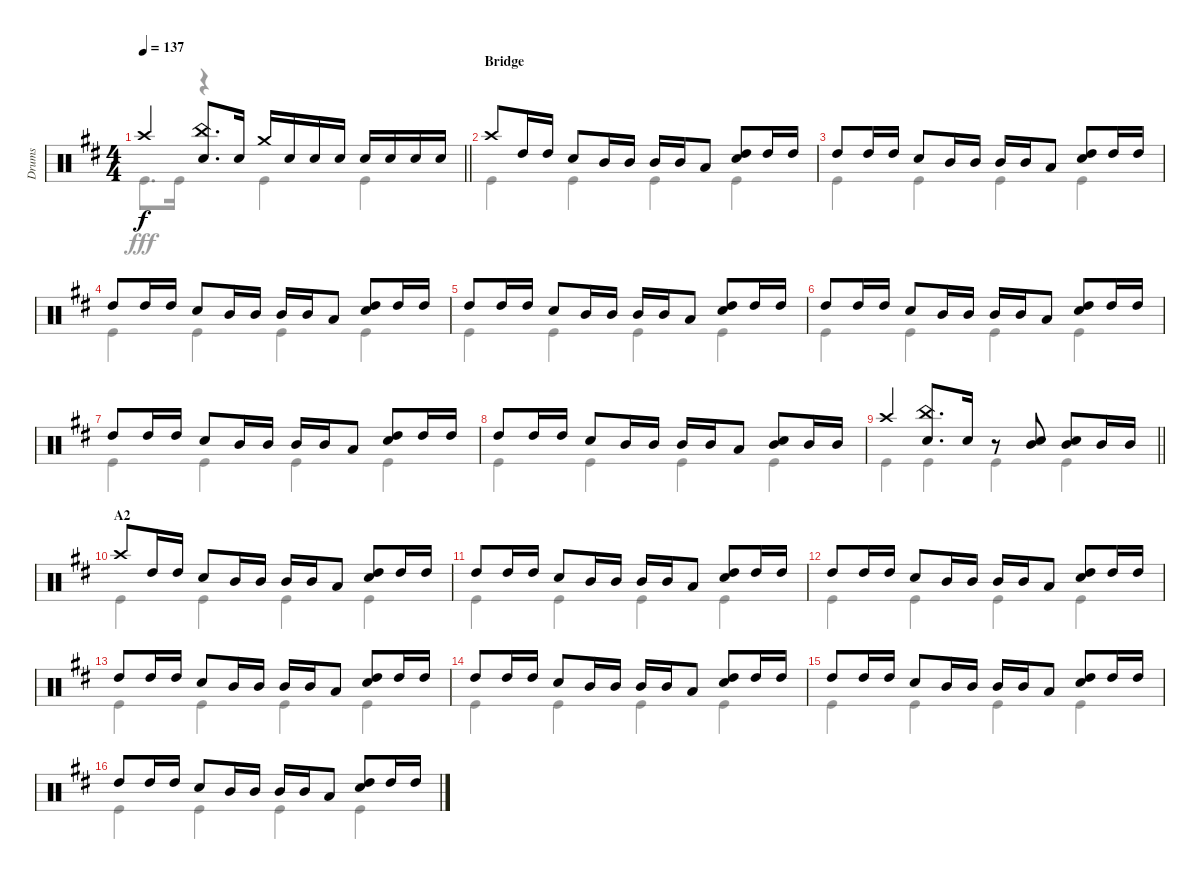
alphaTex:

\track ("Drums" "Drums") {instrument percussion}
\staff {score}
\articulation defaults
\voice
\ts (4 4)
\tempo 137
\clef neutral
\barLineRight lightlight
\ks d "Crash high (hit)".4{dy f}
("China (hit)" "Snare (hit) 2").8{d} "Snare (hit) 2".16 "Crash medium (hit)".16 "Snare (hit) 2".16 "Snare (hit) 2".16 "Snare (hit) 2".16 "Snare (hit) 2".16 "Snare (hit) 2".16 "Snare (hit) 2".16 "Snare (hit) 2".16 |
\section ("" "Bridge")
"Crash high (hit)".8 "High Tom (hit)".16 "High Tom (hit)".16 "Snare (hit) 2".8 "Mid Tom (hit)".16 "Mid Tom (hit)".16 "Mid Tom (hit)".16 "Mid Tom (hit)".16 "Low Tom (hit)".8 ("High Tom (hit)" "Snare (hit) 2").8 "High Tom (hit)".16 "High Tom (hit)".16 |
"High Tom (hit)".8 "High Tom (hit)".16 "High Tom (hit)".16 "Snare (hit) 2".8 "Mid Tom (hit)".16 "Mid Tom (hit)".16 "Mid Tom (hit)".16 "Mid Tom (hit)".16 "Low Tom (hit)".8 ("High Tom (hit)" "Snare (hit) 2").8 "High Tom (hit)".16 "High Tom (hit)".16 |
"High Tom (hit)".8 "High Tom (hit)".16 "High Tom (hit)".16 "Snare (hit) 2".8 "Mid Tom (hit)".16 "Mid Tom (hit)".16 "Mid Tom (hit)".16 "Mid Tom (hit)".16 "Low Tom (hit)".8 ("High Tom (hit)" "Snare (hit) 2").8 "High Tom (hit)".16 "High Tom (hit)".16 |
"High Tom (hit)".8 "High Tom (hit)".16 "High Tom (hit)".16 "Snare (hit) 2".8 "Mid Tom (hit)".16 "Mid Tom (hit)".16 "Mid Tom (hit)".16 "Mid Tom (hit)".16 "Low Tom (hit)".8 ("High Tom (hit)" "Snare (hit) 2").8 "High Tom (hit)".16 "High Tom (hit)".16 |
"High Tom (hit)".8 "High Tom (hit)".16 "High Tom (hit)".16 "Snare (hit) 2".8 "Mid Tom (hit)".16 "Mid Tom (hit)".16 "Mid Tom (hit)".16 "Mid Tom (hit)".16 "Low Tom (hit)".8 ("High Tom (hit)" "Snare (hit) 2").8 "High Tom (hit)".16 "High Tom (hit)".16 |
"High Tom (hit)".8 "High Tom (hit)".16 "High Tom (hit)".16 "Snare (hit) 2".8 "Mid Tom (hit)".16 "Mid Tom (hit)".16 "Mid Tom (hit)".16 "Mid Tom (hit)".16 "Low Tom (hit)".8 ("High Tom (hit)" "Snare (hit) 2").8 "High Tom (hit)".16 "High Tom (hit)".16 |
"High Tom (hit)".8 "High Tom (hit)".16 "High Tom (hit)".16 "Snare (hit) 2".8 "Mid Tom (hit)".16 "Mid Tom (hit)".16 "Mid Tom (hit)".16 "Mid Tom (hit)".16 "Low Tom (hit)".8 ("Mid Tom (hit)" "Snare (hit) 2").8 "Mid Tom (hit)".16 "Mid Tom (hit)".16 |
\barLineRight lightlight "Crash high (hit)".4
("China (hit)" "Snare (hit) 2").8{d} "Snare (hit) 2".16 r.8 ("Mid Tom (hit)" "Snare (hit) 2").8 ("Mid Tom (hit)" "Snare (hit) 2").8 "Mid Tom (hit)".16 "Mid Tom (hit)".16 |
\section ("" "A2")
"Crash high (hit)".8 "High Tom (hit)".16 "High Tom (hit)".16 "Snare (hit) 2".8 "Mid Tom (hit)".16 "Mid Tom (hit)".16 "Mid Tom (hit)".16 "Mid Tom (hit)".16 "Low Tom (hit)".8 ("Snare (hit) 2" "High Tom (hit)").8 "High Tom (hit)".16 "High Tom (hit)".16 |
"High Tom (hit)".8 "High Tom (hit)".16 "High Tom (hit)".16 "Snare (hit) 2".8 "Mid Tom (hit)".16 "Mid Tom (hit)".16 "Mid Tom (hit)".16 "Mid Tom (hit)".16 "Low Tom (hit)".8 ("Snare (hit) 2" "High Tom (hit)").8 "High Tom (hit)".16 "High Tom (hit)".16 |
"High Tom (hit)".8 "High Tom (hit)".16 "High Tom (hit)".16 "Snare (hit) 2".8 "Mid Tom (hit)".16 "Mid Tom (hit)".16 "Mid Tom (hit)".16 "Mid Tom (hit)".16 "Low Tom (hit)".8 ("Snare (hit) 2" "High Tom (hit)").8 "High Tom (hit)".16 "High Tom (hit)".16 |
"High Tom (hit)".8 "High Tom (hit)".16 "High Tom (hit)".16 "Snare (hit) 2".8 "Mid Tom (hit)".16 "Mid Tom (hit)".16 "Mid Tom (hit)".16 "Mid Tom (hit)".16 "Low Tom (hit)".8 ("Snare (hit) 2" "High Tom (hit)").8 "High Tom (hit)".16 "High Tom (hit)".16 |
"High Tom (hit)".8 "High Tom (hit)".16 "High Tom (hit)".16 "Snare (hit) 2".8 "Mid Tom (hit)".16 "Mid Tom (hit)".16 "Mid Tom (hit)".16 "Mid Tom (hit)".16 "Low Tom (hit)".8 ("Snare (hit) 2" "High Tom (hit)").8 "High Tom (hit)".16 "High Tom (hit)".16 |
"High Tom (hit)".8 "High Tom (hit)".16 "High Tom (hit)".16 "Snare (hit) 2".8 "Mid Tom (hit)".16 "Mid Tom (hit)".16 "Mid Tom (hit)".16 "Mid Tom (hit)".16 "Low Tom (hit)".8 ("Snare (hit) 2" "High Tom (hit)").8 "High Tom (hit)".16 "High Tom (hit)".16 |
"High Tom (hit)".8 "High Tom (hit)".16 "High Tom (hit)".16 "Snare (hit) 2".8 "Mid Tom (hit)".16 "Mid Tom (hit)".16 "Mid Tom (hit)".16 "Mid Tom (hit)".16 "Low Tom (hit)".8 ("Snare (hit) 2" "High Tom (hit)").8 "High Tom (hit)".16 "High Tom (hit)".16
\voice
\clef neutral
\ottava regular
\simile none
\barLineRight lightlight
\ks d "Kick (hit)".8{d dy fff} "Kick (hit)".16
r.4 "Kick (hit)".4 "Kick (hit)".4 |
"Kick (hit)".4 "Kick (hit)".4 "Kick (hit)".4 "Kick (hit)".4 |
"Kick (hit)".4 "Kick (hit)".4 "Kick (hit)".4 "Kick (hit)".4 |
"Kick (hit)".4 "Kick (hit)".4 "Kick (hit)".4 "Kick (hit)".4 |
"Kick (hit)".4 "Kick (hit)".4 "Kick (hit)".4 "Kick (hit)".4 |
"Kick (hit)".4 "Kick (hit)".4 "Kick (hit)".4 "Kick (hit)".4 |
"Kick (hit)".4 "Kick (hit)".4 "Kick (hit)".4 "Kick (hit)".4 |
"Kick (hit)".4 "Kick (hit)".4 "Kick (hit)".4 "Kick (hit)".4 |
\barLineRight lightlight "Kick (hit)".4 "Kick (hit)".4 "Kick (hit)".4 "Kick (hit)".4
|
"Kick (hit)".4 "Kick (hit)".4 "Kick (hit)".4 "Kick (hit)".4 |
"Kick (hit)".4 "Kick (hit)".4 "Kick (hit)".4 "Kick (hit)".4 |
"Kick (hit)".4 "Kick (hit)".4 "Kick (hit)".4 "Kick (hit)".4 |
"Kick (hit)".4 "Kick (hit)".4 "Kick (hit)".4 "Kick (hit)".4 |
"Kick (hit)".4 "Kick (hit)".4 "Kick (hit)".4 "Kick (hit)".4 |
"Kick (hit)".4 "Kick (hit)".4 "Kick (hit)".4 "Kick (hit)".4 |
"Kick (hit)".4 "Kick (hit)".4 "Kick (hit)".4 "Kick (hit)".4
